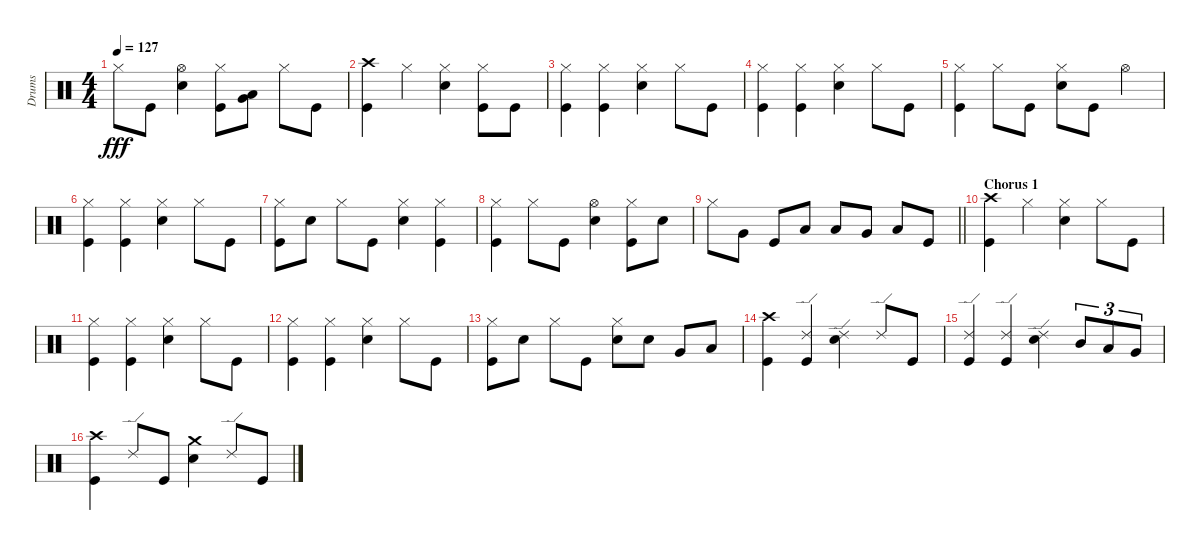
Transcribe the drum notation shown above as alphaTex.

\track ("Drums" "Drums") {instrument percussion}
\staff {score}
\articulation defaults
\ts (4 4)
\tempo 127
\clef neutral
\ks c "Hi-Hat (closed)".8{dy fff} "Kick (hit)".8
("Snare (hit) 2" "Hi-Hat (open)").4 ("Kick (hit)" "Hi-Hat (closed)").8 ("Very Low Tom (hit)" "Low Floor Tom (hit)").8 "Hi-Hat (closed)".8 "Kick (hit)".8 |
("Kick (hit)" "Crash high (hit)").4 "Hi-Hat (closed)".4 ("Snare (hit) 2" "Hi-Hat (closed)").4 ("Hi-Hat (closed)" "Kick (hit)").8 "Kick (hit)".8 |
("Kick (hit)" "Hi-Hat (closed)").4 ("Kick (hit)" "Hi-Hat (closed)").4 ("Snare (hit) 2" "Hi-Hat (closed)").4 "Hi-Hat (closed)".8 "Kick (hit)".8 |
("Kick (hit)" "Hi-Hat (closed)").4 ("Kick (hit)" "Hi-Hat (closed)").4 ("Snare (hit) 2" "Hi-Hat (closed)").4 "Hi-Hat (closed)".8 "Kick (hit)".8 |
("Kick (hit)" "Hi-Hat (closed)").4 "Hi-Hat (closed)".8 "Kick (hit)".8 ("Snare (hit) 2" "Hi-Hat (closed)").8 "Kick (hit)".8 "Hi-Hat (open)".4 |
("Kick (hit)" "Hi-Hat (closed)").4 ("Kick (hit)" "Hi-Hat (closed)").4 ("Snare (hit) 2" "Hi-Hat (closed)").4 "Hi-Hat (closed)".8 "Kick (hit)".8 |
("Kick (hit)" "Hi-Hat (closed)").8 "Snare (hit) 2".8 "Hi-Hat (closed)".8 "Kick (hit)".8 ("Snare (hit) 2" "Hi-Hat (closed)").4 ("Kick (hit)" "Hi-Hat (closed)").4 |
("Kick (hit)" "Hi-Hat (closed)").4 "Hi-Hat (closed)".8 "Kick (hit)".8 ("Snare (hit) 2" "Hi-Hat (open)").4 ("Kick (hit)" "Hi-Hat (closed)").8 "Snare (hit) 2".8 |
\barLineRight lightlight "Hi-Hat (closed)".8 "Very Low Tom (hit)".8 "Kick (hit)".8 "Low Tom (hit)".8 "Low Tom (hit)".8 "Very Low Tom (hit)".8 "Low Floor Tom (hit)".8 "Kick (hit)".8
|
\section ("" "Chorus 1 ")
("Kick (hit)" "Crash high (hit)").4 "Hi-Hat (closed)".4 ("Snare (hit) 2" "Hi-Hat (closed)").4 "Hi-Hat (closed)".8 "Kick (hit)".8 |
("Kick (hit)" "Hi-Hat (closed)").4 ("Kick (hit)" "Hi-Hat (closed)").4 ("Snare (hit) 2" "Hi-Hat (closed)").4 "Hi-Hat (closed)".8 "Kick (hit)".8 |
("Kick (hit)" "Hi-Hat (closed)").4 ("Kick (hit)" "Hi-Hat (closed)").4 ("Snare (hit) 2" "Hi-Hat (closed)").4 "Hi-Hat (closed)".8 "Kick (hit)".8 |
("Kick (hit)" "Hi-Hat (closed)").8 "Snare (hit) 2".8 "Hi-Hat (closed)".8 "Kick (hit)".8 ("Snare (hit) 2" "Hi-Hat (closed)").8 "Snare (hit) 2".8 "Very Low Tom (hit)".8 "Low Floor Tom (hit)".8 |
("Kick (hit)" "Crash high (hit)").4 ("Kick (hit)" "Ride (edge) 2").4 ("Snare (hit) 2" "Ride (edge) 2").4 "Ride (edge) 2".8 "Kick (hit)".8 |
("Ride (edge) 2" "Kick (hit)").4 ("Ride (edge) 2" "Kick (hit)").4 ("Ride (edge) 2" "Snare (hit) 2").4 "Mid Tom (hit)".8{tu (3 2)} "Low Tom (hit)".8{tu (3 2)} "Very Low Tom (hit)".8{tu (3 2)} |
("Kick (hit)" "Crash high (hit)").4 "Ride (edge) 2".8 "Kick (hit)".8 ("Snare (hit) 2" "Crash medium (hit)").4 "Ride (edge) 2".8 "Kick (hit)".8
